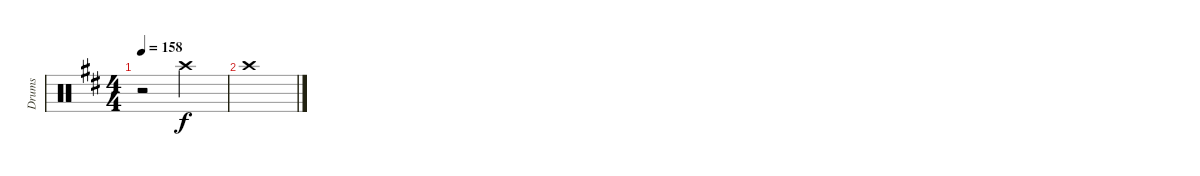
\track ("Drums" "Drums") {instrument percussion}
\staff {score}
\articulation defaults
\ts (4 4)
\tempo 158
\clef neutral
\ks d
r.2{dy mf} "Crash high (hit)".2{dy f} |
"Crash high (hit)".1
